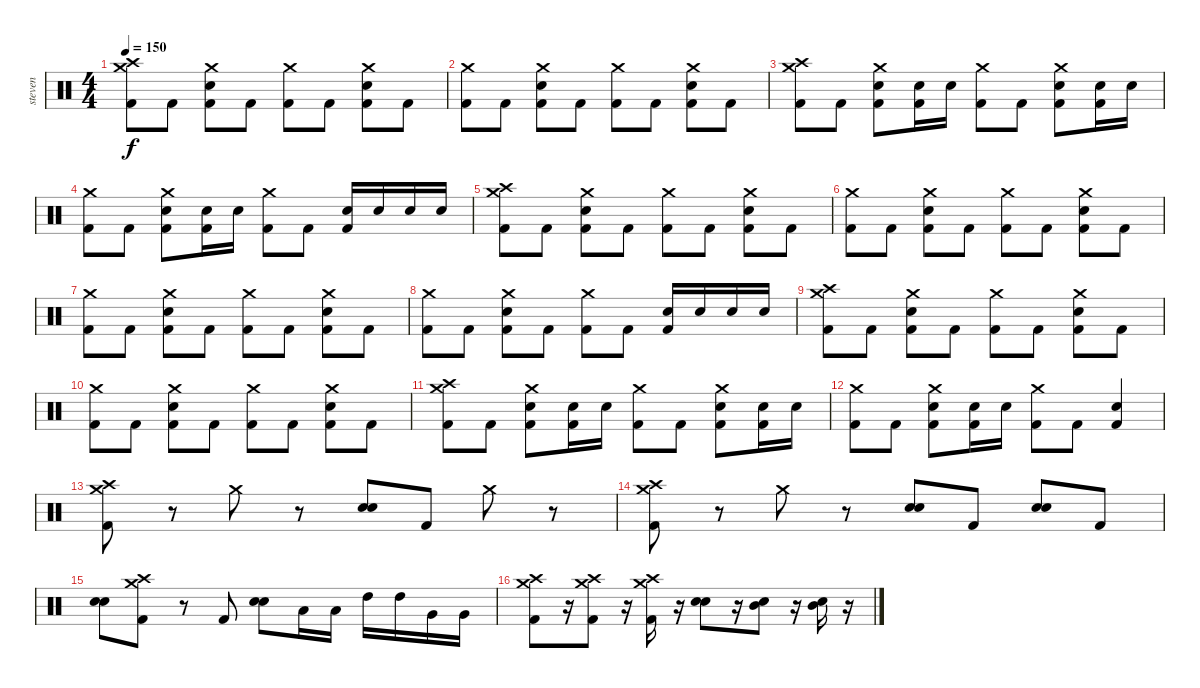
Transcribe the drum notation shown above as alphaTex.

\track ("steven" "steven") {instrument percussion}
\staff {score}
\articulation defaults
\ts (4 4)
\tempo 150
\clef neutral
\ks c
("Crash high (hit)" "Crash medium (hit)" "Kick (hit) 2").8{dy f} "Kick (hit) 2".8 ("Crash medium (hit)" "Electric Snare (hit)" "Kick (hit) 2").8 "Kick (hit) 2".8 ("Crash medium (hit)" "Kick (hit) 2").8 "Kick (hit) 2".8 ("Crash medium (hit)" "Electric Snare (hit)" "Kick (hit) 2").8 "Kick (hit) 2".8 |
("Crash medium (hit)" "Kick (hit) 2").8 "Kick (hit) 2".8 ("Crash medium (hit)" "Electric Snare (hit)" "Kick (hit) 2").8 "Kick (hit) 2".8 ("Crash medium (hit)" "Kick (hit) 2").8 "Kick (hit) 2".8 ("Crash medium (hit)" "Electric Snare (hit)" "Kick (hit) 2").8 "Kick (hit) 2".8 |
("Crash high (hit)" "Crash medium (hit)" "Kick (hit) 2").8 "Kick (hit) 2".8 ("Crash medium (hit)" "Electric Snare (hit)" "Kick (hit) 2").8 ("Electric Snare (hit)" "Kick (hit) 2").16 "Electric Snare (hit)".16 ("Crash medium (hit)" "Kick (hit) 2").8 "Kick (hit) 2".8 ("Crash medium (hit)" "Electric Snare (hit)" "Kick (hit) 2").8 ("Electric Snare (hit)" "Kick (hit) 2").16 "Electric Snare (hit)".16 |
("Crash medium (hit)" "Kick (hit) 2").8 "Kick (hit) 2".8 ("Crash medium (hit)" "Electric Snare (hit)" "Kick (hit) 2").8 ("Electric Snare (hit)" "Kick (hit) 2").16 "Electric Snare (hit)".16 ("Crash medium (hit)" "Kick (hit) 2").8 "Kick (hit) 2".8 ("Electric Snare (hit)" "Kick (hit) 2").16 "Electric Snare (hit)".16 "Electric Snare (hit)".16 "Electric Snare (hit)".16 |
("Crash high (hit)" "Crash medium (hit)" "Kick (hit) 2").8 "Kick (hit) 2".8 ("Crash medium (hit)" "Electric Snare (hit)" "Kick (hit) 2").8 "Kick (hit) 2".8 ("Crash medium (hit)" "Kick (hit) 2").8 "Kick (hit) 2".8 ("Crash medium (hit)" "Electric Snare (hit)" "Kick (hit) 2").8 "Kick (hit) 2".8 |
("Crash medium (hit)" "Kick (hit) 2").8 "Kick (hit) 2".8 ("Crash medium (hit)" "Electric Snare (hit)" "Kick (hit) 2").8 "Kick (hit) 2".8 ("Crash medium (hit)" "Kick (hit) 2").8 "Kick (hit) 2".8 ("Crash medium (hit)" "Electric Snare (hit)" "Kick (hit) 2").8 "Kick (hit) 2".8 |
("Crash medium (hit)" "Kick (hit) 2").8 "Kick (hit) 2".8 ("Crash medium (hit)" "Electric Snare (hit)" "Kick (hit) 2").8 "Kick (hit) 2".8 ("Crash medium (hit)" "Kick (hit) 2").8 "Kick (hit) 2".8 ("Crash medium (hit)" "Electric Snare (hit)" "Kick (hit) 2").8 "Kick (hit) 2".8 |
("Crash medium (hit)" "Kick (hit) 2").8 "Kick (hit) 2".8 ("Crash medium (hit)" "Electric Snare (hit)" "Kick (hit) 2").8 "Kick (hit) 2".8 ("Crash medium (hit)" "Kick (hit) 2").8 "Kick (hit) 2".8 ("Electric Snare (hit)" "Kick (hit) 2").16 "Electric Snare (hit)".16 "Electric Snare (hit)".16 "Electric Snare (hit)".16 |
("Crash high (hit)" "Crash medium (hit)" "Kick (hit) 2").8 "Kick (hit) 2".8 ("Crash medium (hit)" "Electric Snare (hit)" "Kick (hit) 2").8 "Kick (hit) 2".8 ("Crash medium (hit)" "Kick (hit) 2").8 "Kick (hit) 2".8 ("Crash medium (hit)" "Electric Snare (hit)" "Kick (hit) 2").8 "Kick (hit) 2".8 |
("Crash medium (hit)" "Kick (hit) 2").8 "Kick (hit) 2".8 ("Crash medium (hit)" "Electric Snare (hit)" "Kick (hit) 2").8 "Kick (hit) 2".8 ("Crash medium (hit)" "Kick (hit) 2").8 "Kick (hit) 2".8 ("Crash medium (hit)" "Electric Snare (hit)" "Kick (hit) 2").8 "Kick (hit) 2".8 |
("Crash high (hit)" "Crash medium (hit)" "Kick (hit) 2").8 "Kick (hit) 2".8 ("Crash medium (hit)" "Electric Snare (hit)" "Kick (hit) 2").8 ("Electric Snare (hit)" "Kick (hit) 2").16 "Electric Snare (hit)".16 ("Crash medium (hit)" "Kick (hit) 2").8 "Kick (hit) 2".8 ("Crash medium (hit)" "Electric Snare (hit)" "Kick (hit) 2").8 ("Electric Snare (hit)" "Kick (hit) 2").16 "Electric Snare (hit)".16 |
("Crash medium (hit)" "Kick (hit) 2").8 "Kick (hit) 2".8 ("Crash medium (hit)" "Electric Snare (hit)" "Kick (hit) 2").8 ("Electric Snare (hit)" "Kick (hit) 2").16 "Electric Snare (hit)".16 ("Crash medium (hit)" "Kick (hit) 2").8 "Kick (hit) 2".8 ("Electric Snare (hit)" "Kick (hit) 2").4 |
("Crash high (hit)" "Crash medium (hit)" "Kick (hit) 2").8 r.8 "Crash medium (hit)".8 r.8 ("Electric Snare (hit)" "Electric Snare (hit)").8 "Kick (hit) 2".8 "Crash medium (hit)".8 r.8 |
("Crash high (hit)" "Crash medium (hit)" "Kick (hit) 2").8 r.8 "Crash medium (hit)".8 r.8 ("Electric Snare (hit)" "Electric Snare (hit)").8 "Kick (hit) 2".8 ("Electric Snare (hit)" "Electric Snare (hit)").8 "Kick (hit) 2".8 |
("Electric Snare (hit)" "Electric Snare (hit)").8 ("Crash high (hit)" "Crash medium (hit)" "Kick (hit) 2").8 r.8 "Kick (hit) 2".8 ("Electric Snare (hit)" "Electric Snare (hit)").8 "Low Tom (hit)".16 "Low Tom (hit)".16 "High Tom (hit)".16 "High Tom (hit)".16 "Very Low Tom (hit)".16 "Very Low Tom (hit)".16 |
("Crash medium (hit)" "Crash high (hit)" "Kick (hit) 2").8 r.16 ("Crash medium (hit)" "Crash high (hit)" "Kick (hit) 2").8 r.16 ("Crash medium (hit)" "Crash high (hit)" "Kick (hit) 2").16 r.16 ("Electric Snare (hit)" "Electric Snare (hit)").8 r.16 ("Mid Tom (hit)" "Electric Snare (hit)").8 r.16 ("Mid Tom (hit)" "Electric Snare (hit)").16 r.16
